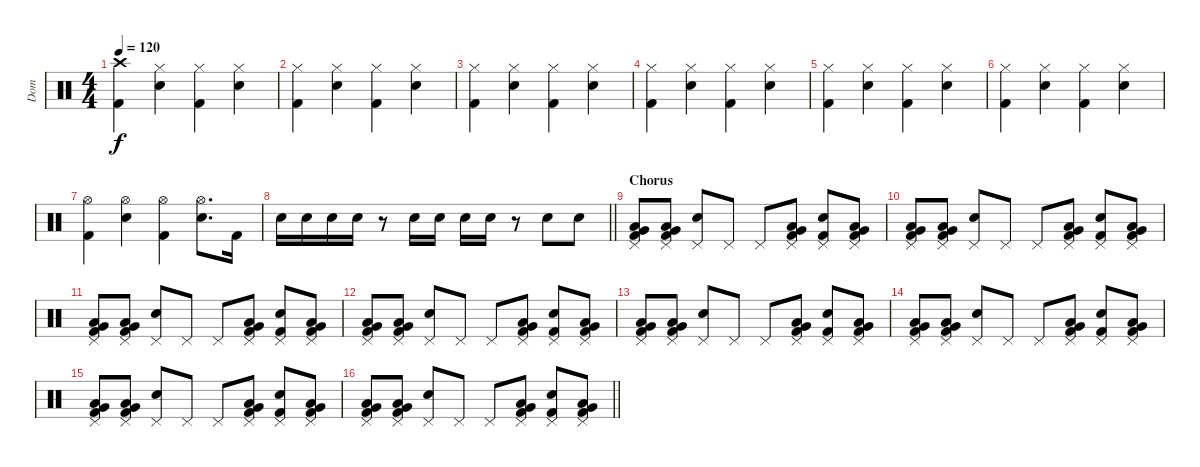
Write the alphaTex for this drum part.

\track ("Dom" "Dom") {instrument percussion}
\staff {score}
\articulation defaults
\ts (4 4)
\tempo 120
\clef neutral
\ks c
("Crash high (hit)" "Kick (hit) 2").4{dy f} ("Hi-Hat (closed)" "Electric Snare (hit)").4 ("Hi-Hat (closed)" "Kick (hit) 2").4 ("Hi-Hat (closed)" "Electric Snare (hit)").4 |
("Hi-Hat (closed)" "Kick (hit) 2").4 ("Hi-Hat (closed)" "Electric Snare (hit)").4 ("Hi-Hat (closed)" "Kick (hit) 2").4 ("Hi-Hat (closed)" "Electric Snare (hit)").4 |
("Hi-Hat (closed)" "Kick (hit) 2").4 ("Hi-Hat (closed)" "Electric Snare (hit)").4 ("Hi-Hat (closed)" "Kick (hit) 2").4 ("Hi-Hat (closed)" "Electric Snare (hit)").4 |
("Hi-Hat (closed)" "Kick (hit) 2").4 ("Hi-Hat (closed)" "Electric Snare (hit)").4 ("Hi-Hat (closed)" "Kick (hit) 2").4 ("Hi-Hat (closed)" "Electric Snare (hit)").4 |
("Hi-Hat (closed)" "Kick (hit) 2").4 ("Hi-Hat (closed)" "Electric Snare (hit)").4 ("Hi-Hat (closed)" "Kick (hit) 2").4 ("Hi-Hat (closed)" "Electric Snare (hit)").4 |
("Hi-Hat (closed)" "Kick (hit) 2").4 ("Hi-Hat (closed)" "Electric Snare (hit)").4 ("Hi-Hat (closed)" "Kick (hit) 2").4 ("Hi-Hat (closed)" "Electric Snare (hit)").4 |
("Hi-Hat (open)" "Kick (hit) 2").4 ("Hi-Hat (open)" "Electric Snare (hit)").4 ("Hi-Hat (open)" "Kick (hit) 2").4 ("Hi-Hat (open)" "Electric Snare (hit)").8{d} "Kick (hit) 2".16 |
\barLineRight lightlight "Electric Snare (hit)".16 "Electric Snare (hit)".16 "Electric Snare (hit)".16 "Electric Snare (hit)".16
r.8 "Electric Snare (hit)".16 "Electric Snare (hit)".16 "Electric Snare (hit)".16 "Electric Snare (hit)".16 r.8 "Electric Snare (hit)".8 "Electric Snare (hit)".8 |
\section ("" "Chorus")
("Pedal Hi-Hat (hit)" "Very Low Tom (hit)" "Low Floor Tom (hit)" "Kick (hit) 2").8 ("Pedal Hi-Hat (hit)" "Very Low Tom (hit)" "Low Floor Tom (hit)" "Kick (hit) 2").8 ("Pedal Hi-Hat (hit)" "Electric Snare (hit)").8 "Pedal Hi-Hat (hit)".8 "Pedal Hi-Hat (hit)".8 ("Pedal Hi-Hat (hit)" "Very Low Tom (hit)" "Low Floor Tom (hit)" "Kick (hit) 2").8 ("Pedal Hi-Hat (hit)" "Electric Snare (hit)" "Kick (hit) 2").8 ("Pedal Hi-Hat (hit)" "Very Low Tom (hit)" "Low Floor Tom (hit)" "Kick (hit) 2").8 |
("Pedal Hi-Hat (hit)" "Very Low Tom (hit)" "Low Floor Tom (hit)" "Kick (hit) 2").8 ("Pedal Hi-Hat (hit)" "Very Low Tom (hit)" "Low Floor Tom (hit)" "Kick (hit) 2").8 ("Pedal Hi-Hat (hit)" "Electric Snare (hit)").8 "Pedal Hi-Hat (hit)".8 "Pedal Hi-Hat (hit)".8 ("Pedal Hi-Hat (hit)" "Very Low Tom (hit)" "Low Floor Tom (hit)" "Kick (hit) 2").8 ("Pedal Hi-Hat (hit)" "Electric Snare (hit)" "Kick (hit) 2").8 ("Pedal Hi-Hat (hit)" "Very Low Tom (hit)" "Low Floor Tom (hit)" "Kick (hit) 2").8 |
("Pedal Hi-Hat (hit)" "Very Low Tom (hit)" "Low Floor Tom (hit)" "Kick (hit) 2").8 ("Pedal Hi-Hat (hit)" "Very Low Tom (hit)" "Low Floor Tom (hit)" "Kick (hit) 2").8 ("Pedal Hi-Hat (hit)" "Electric Snare (hit)").8 "Pedal Hi-Hat (hit)".8 "Pedal Hi-Hat (hit)".8 ("Pedal Hi-Hat (hit)" "Very Low Tom (hit)" "Low Floor Tom (hit)" "Kick (hit) 2").8 ("Pedal Hi-Hat (hit)" "Electric Snare (hit)" "Kick (hit) 2").8 ("Pedal Hi-Hat (hit)" "Very Low Tom (hit)" "Low Floor Tom (hit)" "Kick (hit) 2").8 |
("Pedal Hi-Hat (hit)" "Very Low Tom (hit)" "Low Floor Tom (hit)" "Kick (hit) 2").8 ("Pedal Hi-Hat (hit)" "Very Low Tom (hit)" "Low Floor Tom (hit)" "Kick (hit) 2").8 ("Pedal Hi-Hat (hit)" "Electric Snare (hit)").8 "Pedal Hi-Hat (hit)".8 "Pedal Hi-Hat (hit)".8 ("Pedal Hi-Hat (hit)" "Very Low Tom (hit)" "Low Floor Tom (hit)" "Kick (hit) 2").8 ("Pedal Hi-Hat (hit)" "Electric Snare (hit)" "Kick (hit) 2").8 ("Pedal Hi-Hat (hit)" "Very Low Tom (hit)" "Low Floor Tom (hit)" "Kick (hit) 2").8 |
("Pedal Hi-Hat (hit)" "Very Low Tom (hit)" "Low Floor Tom (hit)" "Kick (hit) 2").8 ("Pedal Hi-Hat (hit)" "Very Low Tom (hit)" "Low Floor Tom (hit)" "Kick (hit) 2").8 ("Pedal Hi-Hat (hit)" "Electric Snare (hit)").8 "Pedal Hi-Hat (hit)".8 "Pedal Hi-Hat (hit)".8 ("Pedal Hi-Hat (hit)" "Very Low Tom (hit)" "Low Floor Tom (hit)" "Kick (hit) 2").8 ("Pedal Hi-Hat (hit)" "Electric Snare (hit)" "Kick (hit) 2").8 ("Pedal Hi-Hat (hit)" "Very Low Tom (hit)" "Low Floor Tom (hit)" "Kick (hit) 2").8 |
("Pedal Hi-Hat (hit)" "Very Low Tom (hit)" "Low Floor Tom (hit)" "Kick (hit) 2").8 ("Pedal Hi-Hat (hit)" "Very Low Tom (hit)" "Low Floor Tom (hit)" "Kick (hit) 2").8 ("Pedal Hi-Hat (hit)" "Electric Snare (hit)").8 "Pedal Hi-Hat (hit)".8 "Pedal Hi-Hat (hit)".8 ("Pedal Hi-Hat (hit)" "Very Low Tom (hit)" "Low Floor Tom (hit)" "Kick (hit) 2").8 ("Pedal Hi-Hat (hit)" "Electric Snare (hit)" "Kick (hit) 2").8 ("Pedal Hi-Hat (hit)" "Very Low Tom (hit)" "Low Floor Tom (hit)" "Kick (hit) 2").8 |
("Pedal Hi-Hat (hit)" "Very Low Tom (hit)" "Low Floor Tom (hit)" "Kick (hit) 2").8 ("Pedal Hi-Hat (hit)" "Very Low Tom (hit)" "Low Floor Tom (hit)" "Kick (hit) 2").8 ("Pedal Hi-Hat (hit)" "Electric Snare (hit)").8 "Pedal Hi-Hat (hit)".8 "Pedal Hi-Hat (hit)".8 ("Pedal Hi-Hat (hit)" "Very Low Tom (hit)" "Low Floor Tom (hit)" "Kick (hit) 2").8 ("Pedal Hi-Hat (hit)" "Electric Snare (hit)" "Kick (hit) 2").8 ("Pedal Hi-Hat (hit)" "Very Low Tom (hit)" "Low Floor Tom (hit)" "Kick (hit) 2").8 |
\barLineRight lightlight
("Pedal Hi-Hat (hit)" "Very Low Tom (hit)" "Low Floor Tom (hit)" "Kick (hit) 2").8 ("Pedal Hi-Hat (hit)" "Very Low Tom (hit)" "Low Floor Tom (hit)" "Kick (hit) 2").8 ("Pedal Hi-Hat (hit)" "Electric Snare (hit)").8 "Pedal Hi-Hat (hit)".8 "Pedal Hi-Hat (hit)".8 ("Pedal Hi-Hat (hit)" "Very Low Tom (hit)" "Low Floor Tom (hit)" "Kick (hit) 2").8 ("Pedal Hi-Hat (hit)" "Electric Snare (hit)" "Kick (hit) 2").8 ("Pedal Hi-Hat (hit)" "Very Low Tom (hit)" "Low Floor Tom (hit)" "Kick (hit) 2").8
